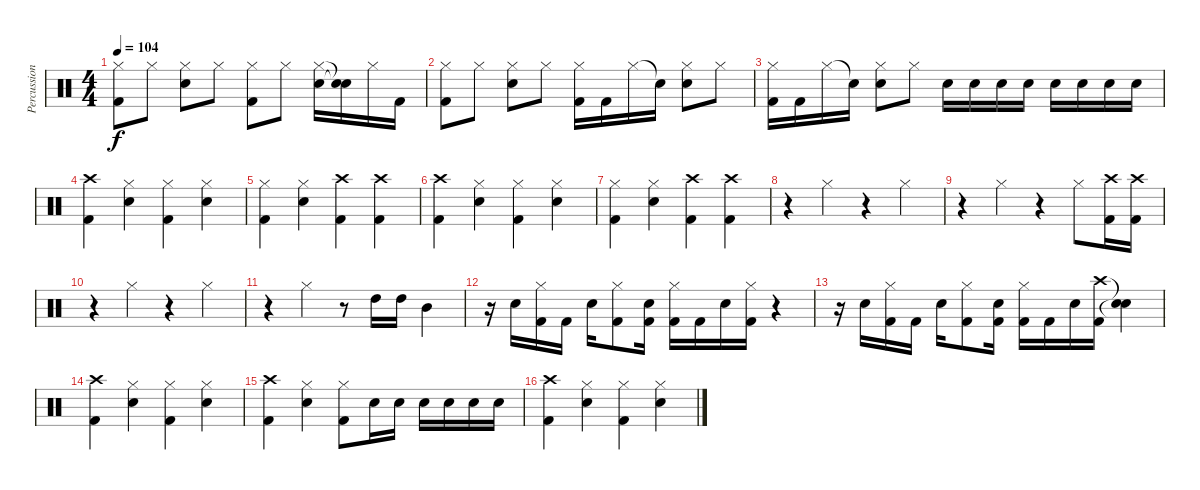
\track ("Percussion" "Percussion") {instrument percussion}
\staff {score}
\articulation defaults
\ts (4 4)
\tempo 104
\clef neutral
\ks c
("Hi-Hat (closed)" "Kick (hit) 2").8{dy f} "Hi-Hat (closed)".8 ("Hi-Hat (closed)" "Snare (hit) 2").8 "Hi-Hat (closed)".8 ("Hi-Hat (closed)" "Kick (hit) 2").8 "Hi-Hat (closed)".8 ("Hi-Hat (closed)" "Snare (hit) 2").16 ("Snare (hit)"{t} "Snare (hit)"{t}).16 "Hi-Hat (closed)".16 "Kick (hit) 2".16 |
("Hi-Hat (closed)" "Kick (hit) 2").8 "Hi-Hat (closed)".8 ("Hi-Hat (closed)" "Snare (hit) 2").8 "Hi-Hat (closed)".8 ("Hi-Hat (closed)" "Kick (hit) 2").16 "Kick (hit) 2".16 "Hi-Hat (closed)".16 "Snare (hit)"{t}.16 ("Hi-Hat (closed)" "Snare (hit) 2").8 "Hi-Hat (closed)".8 |
("Hi-Hat (closed)" "Kick (hit) 2").16 "Kick (hit) 2".16 "Hi-Hat (closed)".16 "Snare (hit)"{t}.16 ("Hi-Hat (closed)" "Snare (hit) 2").8 "Hi-Hat (closed)".8 "Snare (hit) 2".16 "Snare (hit) 2".16 "Snare (hit) 2".16 "Snare (hit) 2".16 "Snare (hit) 2".16 "Snare (hit) 2".16 "Snare (hit) 2".16 "Snare (hit) 2".16 |
("Crash high (hit)" "Kick (hit) 2").4 ("Hi-Hat (closed)" "Snare (hit) 2").4 ("Hi-Hat (closed)" "Kick (hit) 2").4 ("Hi-Hat (closed)" "Snare (hit) 2").4 |
("Hi-Hat (closed)" "Kick (hit) 2").4 ("Hi-Hat (closed)" "Snare (hit) 2").4 ("Crash high (hit)" "Kick (hit) 2").4 ("Crash high (hit)" "Kick (hit) 2").4 |
("Crash high (hit)" "Kick (hit) 2").4 ("Hi-Hat (closed)" "Snare (hit) 2").4 ("Hi-Hat (closed)" "Kick (hit) 2").4 ("Hi-Hat (closed)" "Snare (hit) 2").4 |
("Hi-Hat (closed)" "Kick (hit) 2").4 ("Hi-Hat (closed)" "Snare (hit) 2").4 ("Crash high (hit)" "Kick (hit) 2").4 ("Crash high (hit)" "Kick (hit) 2").4 |
r.4 "Hi-Hat (closed)".4 r.4 "Hi-Hat (closed)".4 |
r.4 "Hi-Hat (closed)".4 r.4 "Hi-Hat (closed)".8 ("Crash high (hit)" "Kick (hit) 2").16 ("Crash high (hit)" "Kick (hit) 2").16 |
r.4 "Hi-Hat (closed)".4 r.4 "Hi-Hat (closed)".4 |
r.4 "Hi-Hat (closed)".4 r.8 "High Tom (hit)".16 "High Tom (hit)".16 "Mid Tom (hit)".4 |
r.16 "Snare (hit) 2".16 ("Hi-Hat (closed)" "Kick (hit) 2").16 "Kick (hit) 2".16 "Snare (hit) 2".16 ("Hi-Hat (closed)" "Kick (hit) 2").8 ("Snare (hit) 2" "Kick (hit) 2").16 ("Hi-Hat (closed)" "Kick (hit) 2").16 "Kick (hit) 2".16 "Snare (hit) 2".16 ("Hi-Hat (closed)" "Kick (hit) 2").16 r.4 |
r.16 "Snare (hit) 2".16 ("Hi-Hat (closed)" "Kick (hit) 2").16 "Kick (hit) 2".16 "Snare (hit) 2".16 ("Hi-Hat (closed)" "Kick (hit) 2").8 ("Snare (hit) 2" "Kick (hit) 2").16 ("Hi-Hat (closed)" "Kick (hit) 2").16 "Kick (hit) 2".16 "Snare (hit) 2".16 ("Crash high (hit)" "Kick (hit) 2").16 ("Snare (hit)"{t} "Snare (hit)"{t}).4 |
("Crash high (hit)" "Kick (hit) 2").4 ("Hi-Hat (closed)" "Snare (hit) 2").4 ("Hi-Hat (closed)" "Kick (hit) 2").4 ("Hi-Hat (closed)" "Snare (hit) 2").4 |
("Crash high (hit)" "Kick (hit) 2").4 ("Hi-Hat (closed)" "Snare (hit) 2").4 ("Hi-Hat (closed)" "Kick (hit) 2").8 "Snare (hit) 2".16 "Snare (hit) 2".16 "Snare (hit) 2".16 "Snare (hit) 2".16 "Snare (hit) 2".16 "Snare (hit) 2".16 |
("Crash high (hit)" "Kick (hit) 2").4 ("Hi-Hat (closed)" "Snare (hit) 2").4 ("Hi-Hat (closed)" "Kick (hit) 2").4 ("Hi-Hat (closed)" "Snare (hit) 2").4
